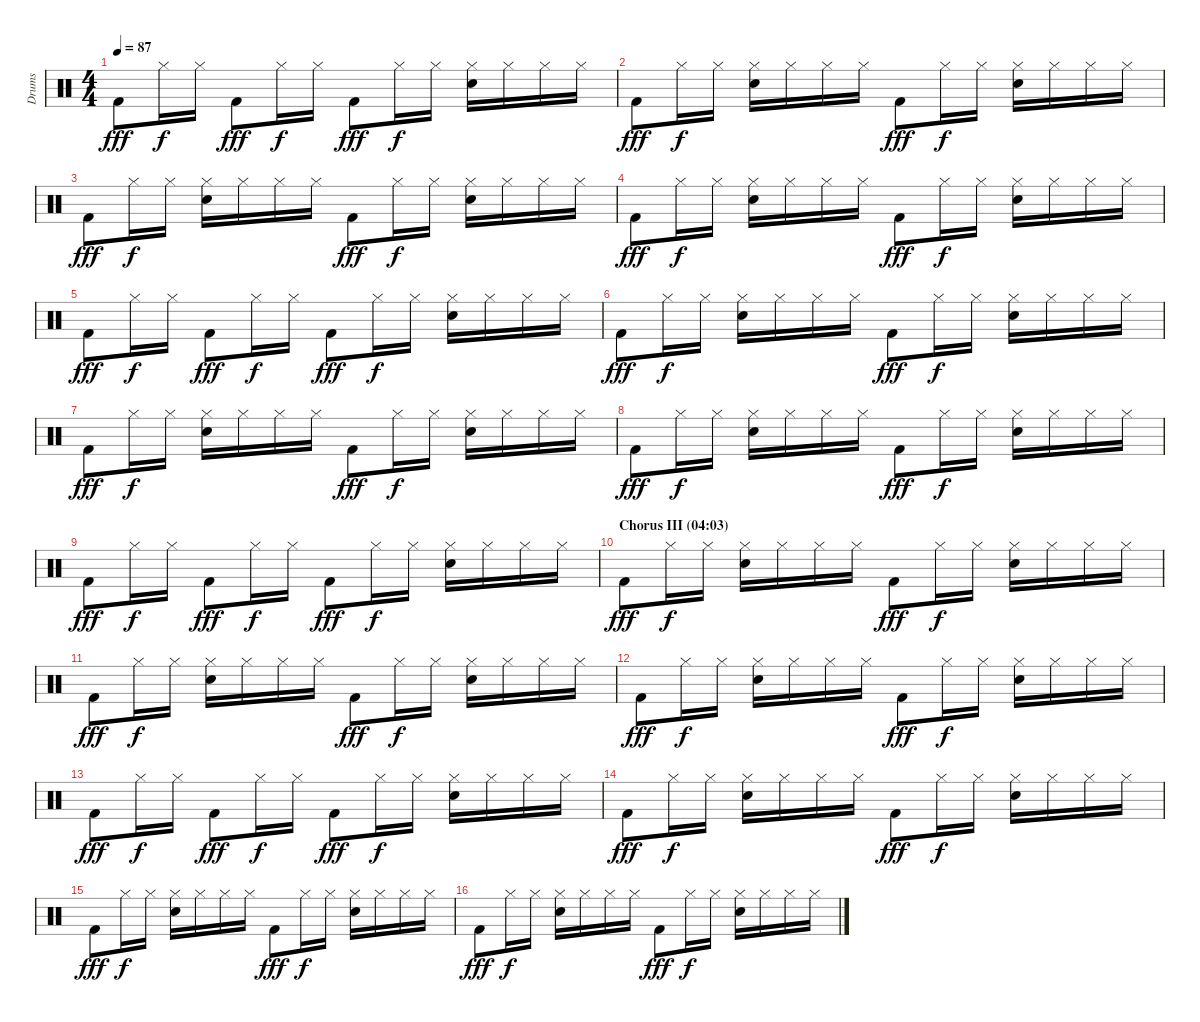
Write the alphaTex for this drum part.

\track ("Drums" "Drums") {instrument percussion}
\staff {score}
\articulation defaults
\ts (4 4)
\tempo 87
\clef neutral
\ks c "Kick (hit) 2".8{dy fff} "Hi-Hat (closed)".16{dy f} "Hi-Hat (closed)".16 "Kick (hit) 2".8{dy fff} "Hi-Hat (closed)".16{dy f} "Hi-Hat (closed)".16 "Kick (hit) 2".8{dy fff} "Hi-Hat (closed)".16{dy f} "Hi-Hat (closed)".16
("Hi-Hat (closed)" "Electric Snare (hit)").16 "Hi-Hat (closed)".16 "Hi-Hat (closed)".16 "Hi-Hat (closed)".16 |
"Kick (hit) 2".8{dy fff} "Hi-Hat (closed)".16{dy f} "Hi-Hat (closed)".16 ("Hi-Hat (closed)" "Electric Snare (hit)").16 "Hi-Hat (closed)".16 "Hi-Hat (closed)".16 "Hi-Hat (closed)".16 "Kick (hit) 2".8{dy fff} "Hi-Hat (closed)".16{dy f} "Hi-Hat (closed)".16 ("Hi-Hat (closed)" "Electric Snare (hit)").16 "Hi-Hat (closed)".16 "Hi-Hat (closed)".16 "Hi-Hat (closed)".16 |
"Kick (hit) 2".8{dy fff} "Hi-Hat (closed)".16{dy f} "Hi-Hat (closed)".16 ("Hi-Hat (closed)" "Electric Snare (hit)").16 "Hi-Hat (closed)".16 "Hi-Hat (closed)".16 "Hi-Hat (closed)".16 "Kick (hit) 2".8{dy fff} "Hi-Hat (closed)".16{dy f} "Hi-Hat (closed)".16 ("Hi-Hat (closed)" "Electric Snare (hit)").16 "Hi-Hat (closed)".16 "Hi-Hat (closed)".16 "Hi-Hat (closed)".16 |
"Kick (hit) 2".8{dy fff} "Hi-Hat (closed)".16{dy f} "Hi-Hat (closed)".16 ("Hi-Hat (closed)" "Electric Snare (hit)").16 "Hi-Hat (closed)".16 "Hi-Hat (closed)".16 "Hi-Hat (closed)".16 "Kick (hit) 2".8{dy fff} "Hi-Hat (closed)".16{dy f} "Hi-Hat (closed)".16 ("Hi-Hat (closed)" "Electric Snare (hit)").16 "Hi-Hat (closed)".16 "Hi-Hat (closed)".16 "Hi-Hat (closed)".16 |
"Kick (hit) 2".8{dy fff} "Hi-Hat (closed)".16{dy f} "Hi-Hat (closed)".16 "Kick (hit) 2".8{dy fff} "Hi-Hat (closed)".16{dy f} "Hi-Hat (closed)".16 "Kick (hit) 2".8{dy fff} "Hi-Hat (closed)".16{dy f} "Hi-Hat (closed)".16 ("Hi-Hat (closed)" "Electric Snare (hit)").16 "Hi-Hat (closed)".16 "Hi-Hat (closed)".16 "Hi-Hat (closed)".16 |
"Kick (hit) 2".8{dy fff} "Hi-Hat (closed)".16{dy f} "Hi-Hat (closed)".16 ("Hi-Hat (closed)" "Electric Snare (hit)").16 "Hi-Hat (closed)".16 "Hi-Hat (closed)".16 "Hi-Hat (closed)".16 "Kick (hit) 2".8{dy fff} "Hi-Hat (closed)".16{dy f} "Hi-Hat (closed)".16 ("Hi-Hat (closed)" "Electric Snare (hit)").16 "Hi-Hat (closed)".16 "Hi-Hat (closed)".16 "Hi-Hat (closed)".16 |
"Kick (hit) 2".8{dy fff} "Hi-Hat (closed)".16{dy f} "Hi-Hat (closed)".16 ("Hi-Hat (closed)" "Electric Snare (hit)").16 "Hi-Hat (closed)".16 "Hi-Hat (closed)".16 "Hi-Hat (closed)".16 "Kick (hit) 2".8{dy fff} "Hi-Hat (closed)".16{dy f} "Hi-Hat (closed)".16 ("Hi-Hat (closed)" "Electric Snare (hit)").16 "Hi-Hat (closed)".16 "Hi-Hat (closed)".16 "Hi-Hat (closed)".16 |
"Kick (hit) 2".8{dy fff} "Hi-Hat (closed)".16{dy f} "Hi-Hat (closed)".16 ("Hi-Hat (closed)" "Electric Snare (hit)").16 "Hi-Hat (closed)".16 "Hi-Hat (closed)".16 "Hi-Hat (closed)".16 "Kick (hit) 2".8{dy fff} "Hi-Hat (closed)".16{dy f} "Hi-Hat (closed)".16 ("Hi-Hat (closed)" "Electric Snare (hit)").16 "Hi-Hat (closed)".16 "Hi-Hat (closed)".16 "Hi-Hat (closed)".16 |
"Kick (hit) 2".8{dy fff} "Hi-Hat (closed)".16{dy f} "Hi-Hat (closed)".16 "Kick (hit) 2".8{dy fff} "Hi-Hat (closed)".16{dy f} "Hi-Hat (closed)".16 "Kick (hit) 2".8{dy fff} "Hi-Hat (closed)".16{dy f} "Hi-Hat (closed)".16 ("Hi-Hat (closed)" "Electric Snare (hit)").16 "Hi-Hat (closed)".16 "Hi-Hat (closed)".16 "Hi-Hat (closed)".16 |
\section ("" "Chorus III (04:03)")
"Kick (hit) 2".8{dy fff} "Hi-Hat (closed)".16{dy f} "Hi-Hat (closed)".16 ("Hi-Hat (closed)" "Electric Snare (hit)").16 "Hi-Hat (closed)".16 "Hi-Hat (closed)".16 "Hi-Hat (closed)".16 "Kick (hit) 2".8{dy fff} "Hi-Hat (closed)".16{dy f} "Hi-Hat (closed)".16 ("Hi-Hat (closed)" "Electric Snare (hit)").16 "Hi-Hat (closed)".16 "Hi-Hat (closed)".16 "Hi-Hat (closed)".16 |
"Kick (hit) 2".8{dy fff} "Hi-Hat (closed)".16{dy f} "Hi-Hat (closed)".16 ("Hi-Hat (closed)" "Electric Snare (hit)").16 "Hi-Hat (closed)".16 "Hi-Hat (closed)".16 "Hi-Hat (closed)".16 "Kick (hit) 2".8{dy fff} "Hi-Hat (closed)".16{dy f} "Hi-Hat (closed)".16 ("Hi-Hat (closed)" "Electric Snare (hit)").16 "Hi-Hat (closed)".16 "Hi-Hat (closed)".16 "Hi-Hat (closed)".16 |
"Kick (hit) 2".8{dy fff} "Hi-Hat (closed)".16{dy f} "Hi-Hat (closed)".16 ("Hi-Hat (closed)" "Electric Snare (hit)").16 "Hi-Hat (closed)".16 "Hi-Hat (closed)".16 "Hi-Hat (closed)".16 "Kick (hit) 2".8{dy fff} "Hi-Hat (closed)".16{dy f} "Hi-Hat (closed)".16 ("Hi-Hat (closed)" "Electric Snare (hit)").16 "Hi-Hat (closed)".16 "Hi-Hat (closed)".16 "Hi-Hat (closed)".16 |
"Kick (hit) 2".8{dy fff} "Hi-Hat (closed)".16{dy f} "Hi-Hat (closed)".16 "Kick (hit) 2".8{dy fff} "Hi-Hat (closed)".16{dy f} "Hi-Hat (closed)".16 "Kick (hit) 2".8{dy fff} "Hi-Hat (closed)".16{dy f} "Hi-Hat (closed)".16 ("Hi-Hat (closed)" "Electric Snare (hit)").16 "Hi-Hat (closed)".16 "Hi-Hat (closed)".16 "Hi-Hat (closed)".16 |
"Kick (hit) 2".8{dy fff} "Hi-Hat (closed)".16{dy f} "Hi-Hat (closed)".16 ("Hi-Hat (closed)" "Electric Snare (hit)").16 "Hi-Hat (closed)".16 "Hi-Hat (closed)".16 "Hi-Hat (closed)".16 "Kick (hit) 2".8{dy fff} "Hi-Hat (closed)".16{dy f} "Hi-Hat (closed)".16 ("Hi-Hat (closed)" "Electric Snare (hit)").16 "Hi-Hat (closed)".16 "Hi-Hat (closed)".16 "Hi-Hat (closed)".16 |
"Kick (hit) 2".8{dy fff} "Hi-Hat (closed)".16{dy f} "Hi-Hat (closed)".16 ("Hi-Hat (closed)" "Electric Snare (hit)").16 "Hi-Hat (closed)".16 "Hi-Hat (closed)".16 "Hi-Hat (closed)".16 "Kick (hit) 2".8{dy fff} "Hi-Hat (closed)".16{dy f} "Hi-Hat (closed)".16 ("Hi-Hat (closed)" "Electric Snare (hit)").16 "Hi-Hat (closed)".16 "Hi-Hat (closed)".16 "Hi-Hat (closed)".16 |
"Kick (hit) 2".8{dy fff} "Hi-Hat (closed)".16{dy f} "Hi-Hat (closed)".16 ("Hi-Hat (closed)" "Electric Snare (hit)").16 "Hi-Hat (closed)".16 "Hi-Hat (closed)".16 "Hi-Hat (closed)".16 "Kick (hit) 2".8{dy fff} "Hi-Hat (closed)".16{dy f} "Hi-Hat (closed)".16 ("Hi-Hat (closed)" "Electric Snare (hit)").16 "Hi-Hat (closed)".16 "Hi-Hat (closed)".16 "Hi-Hat (closed)".16
